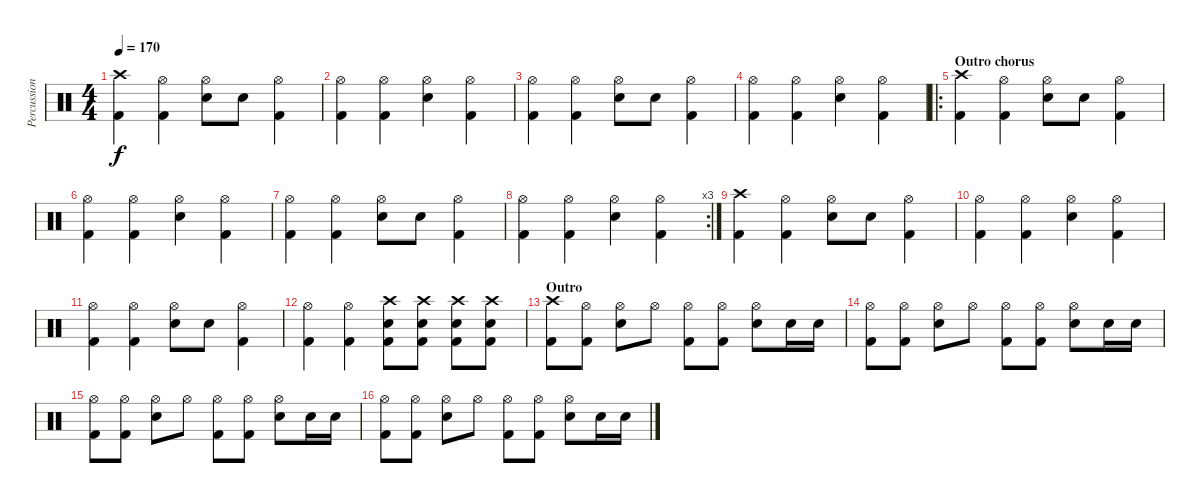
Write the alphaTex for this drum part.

\track ("Percussion" "Percussion") {instrument percussion}
\staff {score}
\articulation defaults
\ts (4 4)
\tempo 170
\clef neutral
\ks c
("Crash high (hit)" "Kick (hit) 2").4{dy f} ("Hi-Hat (open)" "Kick (hit) 2").4 ("Hi-Hat (open)" "Electric Snare (hit)").8 "Electric Snare (hit)".8 ("Hi-Hat (open)" "Kick (hit) 2").4 |
("Hi-Hat (open)" "Kick (hit) 2").4 ("Hi-Hat (open)" "Kick (hit) 2").4 ("Hi-Hat (open)" "Electric Snare (hit)").4 ("Hi-Hat (open)" "Kick (hit) 2").4 |
("Hi-Hat (open)" "Kick (hit) 2").4 ("Hi-Hat (open)" "Kick (hit) 2").4 ("Hi-Hat (open)" "Electric Snare (hit)").8 "Electric Snare (hit)".8 ("Hi-Hat (open)" "Kick (hit) 2").4 |
("Hi-Hat (open)" "Kick (hit) 2").4 ("Hi-Hat (open)" "Kick (hit) 2").4 ("Hi-Hat (open)" "Electric Snare (hit)").4 ("Hi-Hat (open)" "Kick (hit) 2").4 |
\ro
\section ("" "Outro chorus")
("Crash high (hit)" "Kick (hit) 2").4 ("Hi-Hat (open)" "Kick (hit) 2").4 ("Hi-Hat (open)" "Electric Snare (hit)").8 "Electric Snare (hit)".8 ("Hi-Hat (open)" "Kick (hit) 2").4 |
("Hi-Hat (open)" "Kick (hit) 2").4 ("Hi-Hat (open)" "Kick (hit) 2").4 ("Hi-Hat (open)" "Electric Snare (hit)").4 ("Hi-Hat (open)" "Kick (hit) 2").4 |
("Hi-Hat (open)" "Kick (hit) 2").4 ("Hi-Hat (open)" "Kick (hit) 2").4 ("Hi-Hat (open)" "Electric Snare (hit)").8 "Electric Snare (hit)".8 ("Hi-Hat (open)" "Kick (hit) 2").4 |
\rc 3
("Hi-Hat (open)" "Kick (hit) 2").4 ("Hi-Hat (open)" "Kick (hit) 2").4 ("Hi-Hat (open)" "Electric Snare (hit)").4 ("Hi-Hat (open)" "Kick (hit) 2").4 |
("Crash high (hit)" "Kick (hit) 2").4 ("Hi-Hat (open)" "Kick (hit) 2").4 ("Hi-Hat (open)" "Electric Snare (hit)").8 "Electric Snare (hit)".8 ("Hi-Hat (open)" "Kick (hit) 2").4 |
("Hi-Hat (open)" "Kick (hit) 2").4 ("Hi-Hat (open)" "Kick (hit) 2").4 ("Hi-Hat (open)" "Electric Snare (hit)").4 ("Hi-Hat (open)" "Kick (hit) 2").4 |
("Hi-Hat (open)" "Kick (hit) 2").4 ("Hi-Hat (open)" "Kick (hit) 2").4 ("Hi-Hat (open)" "Electric Snare (hit)").8 "Electric Snare (hit)".8 ("Hi-Hat (open)" "Kick (hit) 2").4 |
("Hi-Hat (open)" "Kick (hit) 2").4 ("Hi-Hat (open)" "Kick (hit) 2").4 ("Crash high (hit)" "Electric Snare (hit)" "Kick (hit) 2").8 ("Crash high (hit)" "Electric Snare (hit)" "Kick (hit) 2").8 ("Crash high (hit)" "Electric Snare (hit)" "Kick (hit) 2").8 ("Crash high (hit)" "Electric Snare (hit)" "Kick (hit) 2").8 |
\section ("" "Outro")
("Crash high (hit)" "Kick (hit) 2").8 ("Hi-Hat (open)" "Kick (hit) 2").8 ("Hi-Hat (open)" "Electric Snare (hit)").8 "Hi-Hat (open)".8 ("Hi-Hat (open)" "Kick (hit) 2").8 ("Hi-Hat (open)" "Kick (hit) 2").8 ("Hi-Hat (open)" "Electric Snare (hit)").8 "Electric Snare (hit)".16 "Electric Snare (hit)".16 |
("Hi-Hat (open)" "Kick (hit) 2").8 ("Hi-Hat (open)" "Kick (hit) 2").8 ("Hi-Hat (open)" "Electric Snare (hit)").8 "Hi-Hat (open)".8 ("Hi-Hat (open)" "Kick (hit) 2").8 ("Hi-Hat (open)" "Kick (hit) 2").8 ("Hi-Hat (open)" "Electric Snare (hit)").8 "Electric Snare (hit)".16 "Electric Snare (hit)".16 |
("Hi-Hat (open)" "Kick (hit) 2").8 ("Hi-Hat (open)" "Kick (hit) 2").8 ("Hi-Hat (open)" "Electric Snare (hit)").8 "Hi-Hat (open)".8 ("Hi-Hat (open)" "Kick (hit) 2").8 ("Hi-Hat (open)" "Kick (hit) 2").8 ("Hi-Hat (open)" "Electric Snare (hit)").8 "Electric Snare (hit)".16 "Electric Snare (hit)".16 |
("Hi-Hat (open)" "Kick (hit) 2").8 ("Hi-Hat (open)" "Kick (hit) 2").8 ("Hi-Hat (open)" "Electric Snare (hit)").8 "Hi-Hat (open)".8 ("Hi-Hat (open)" "Kick (hit) 2").8 ("Hi-Hat (open)" "Kick (hit) 2").8 ("Hi-Hat (open)" "Electric Snare (hit)").8 "Electric Snare (hit)".16 "Electric Snare (hit)".16
